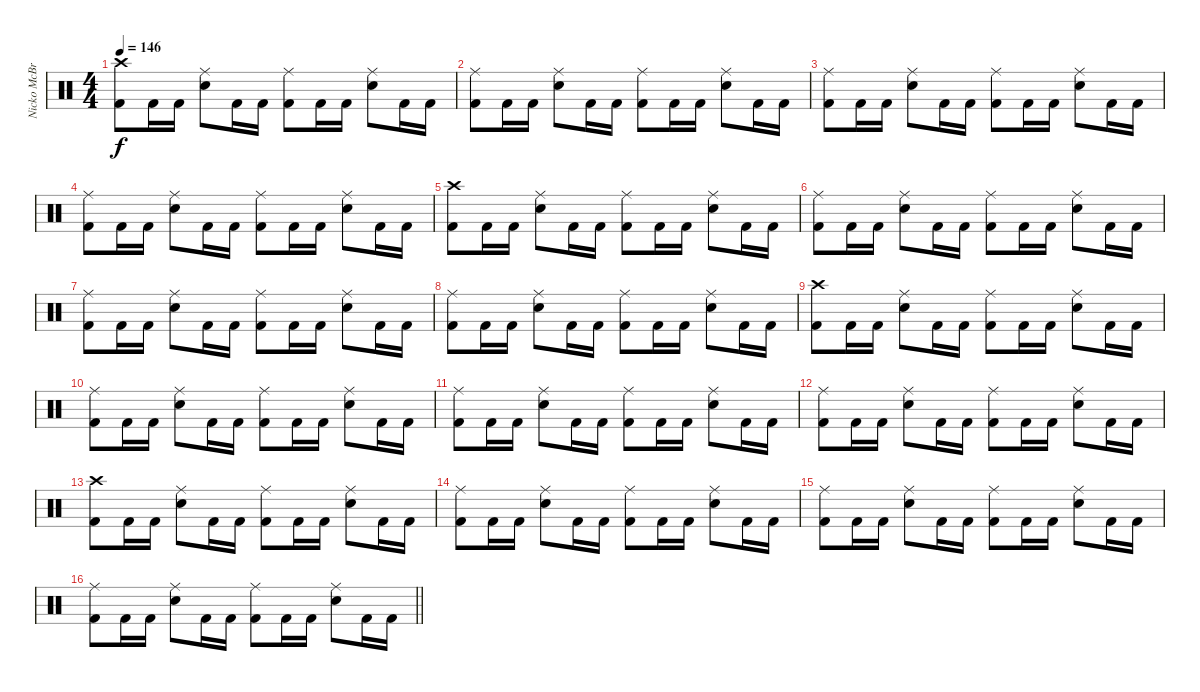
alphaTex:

\track ("Nicko McBrain" "Nicko McBr") {instrument percussion}
\staff {score}
\articulation defaults
\ts (4 4)
\tempo 146
\clef neutral
\ks c
("Crash high (hit)" "Kick (hit) 2").8{dy f} "Kick (hit) 2".16 "Kick (hit) 2".16 ("Ride (middle)" "Snare (hit) 2").8 "Kick (hit) 2".16 "Kick (hit) 2".16 ("Ride (middle)" "Kick (hit) 2").8 "Kick (hit) 2".16 "Kick (hit) 2".16 ("Ride (middle)" "Snare (hit) 2").8 "Kick (hit) 2".16 "Kick (hit) 2".16 |
("Ride (middle)" "Kick (hit) 2").8 "Kick (hit) 2".16 "Kick (hit) 2".16 ("Ride (middle)" "Snare (hit) 2").8 "Kick (hit) 2".16 "Kick (hit) 2".16 ("Ride (middle)" "Kick (hit) 2").8 "Kick (hit) 2".16 "Kick (hit) 2".16 ("Ride (middle)" "Snare (hit) 2").8 "Kick (hit) 2".16 "Kick (hit) 2".16 |
("Ride (middle)" "Kick (hit) 2").8 "Kick (hit) 2".16 "Kick (hit) 2".16 ("Ride (middle)" "Snare (hit) 2").8 "Kick (hit) 2".16 "Kick (hit) 2".16 ("Ride (middle)" "Kick (hit) 2").8 "Kick (hit) 2".16 "Kick (hit) 2".16 ("Ride (middle)" "Snare (hit) 2").8 "Kick (hit) 2".16 "Kick (hit) 2".16 |
("Ride (middle)" "Kick (hit) 2").8 "Kick (hit) 2".16 "Kick (hit) 2".16 ("Ride (middle)" "Snare (hit) 2").8 "Kick (hit) 2".16 "Kick (hit) 2".16 ("Ride (middle)" "Kick (hit) 2").8 "Kick (hit) 2".16 "Kick (hit) 2".16 ("Ride (middle)" "Snare (hit) 2").8 "Kick (hit) 2".16 "Kick (hit) 2".16 |
("Crash high (hit)" "Kick (hit) 2").8 "Kick (hit) 2".16 "Kick (hit) 2".16 ("Ride (middle)" "Snare (hit) 2").8 "Kick (hit) 2".16 "Kick (hit) 2".16 ("Ride (middle)" "Kick (hit) 2").8 "Kick (hit) 2".16 "Kick (hit) 2".16 ("Ride (middle)" "Snare (hit) 2").8 "Kick (hit) 2".16 "Kick (hit) 2".16 |
("Ride (middle)" "Kick (hit) 2").8 "Kick (hit) 2".16 "Kick (hit) 2".16 ("Ride (middle)" "Snare (hit) 2").8 "Kick (hit) 2".16 "Kick (hit) 2".16 ("Ride (middle)" "Kick (hit) 2").8 "Kick (hit) 2".16 "Kick (hit) 2".16 ("Ride (middle)" "Snare (hit) 2").8 "Kick (hit) 2".16 "Kick (hit) 2".16 |
("Ride (middle)" "Kick (hit) 2").8 "Kick (hit) 2".16 "Kick (hit) 2".16 ("Ride (middle)" "Snare (hit) 2").8 "Kick (hit) 2".16 "Kick (hit) 2".16 ("Ride (middle)" "Kick (hit) 2").8 "Kick (hit) 2".16 "Kick (hit) 2".16 ("Ride (middle)" "Snare (hit) 2").8 "Kick (hit) 2".16 "Kick (hit) 2".16 |
("Ride (middle)" "Kick (hit) 2").8 "Kick (hit) 2".16 "Kick (hit) 2".16 ("Ride (middle)" "Snare (hit) 2").8 "Kick (hit) 2".16 "Kick (hit) 2".16 ("Ride (middle)" "Kick (hit) 2").8 "Kick (hit) 2".16 "Kick (hit) 2".16 ("Ride (middle)" "Snare (hit) 2").8 "Kick (hit) 2".16 "Kick (hit) 2".16 |
("Crash high (hit)" "Kick (hit) 2").8 "Kick (hit) 2".16 "Kick (hit) 2".16 ("Ride (middle)" "Snare (hit) 2").8 "Kick (hit) 2".16 "Kick (hit) 2".16 ("Ride (middle)" "Kick (hit) 2").8 "Kick (hit) 2".16 "Kick (hit) 2".16 ("Ride (middle)" "Snare (hit) 2").8 "Kick (hit) 2".16 "Kick (hit) 2".16 |
("Ride (middle)" "Kick (hit) 2").8 "Kick (hit) 2".16 "Kick (hit) 2".16 ("Ride (middle)" "Snare (hit) 2").8 "Kick (hit) 2".16 "Kick (hit) 2".16 ("Ride (middle)" "Kick (hit) 2").8 "Kick (hit) 2".16 "Kick (hit) 2".16 ("Ride (middle)" "Snare (hit) 2").8 "Kick (hit) 2".16 "Kick (hit) 2".16 |
("Ride (middle)" "Kick (hit) 2").8 "Kick (hit) 2".16 "Kick (hit) 2".16 ("Ride (middle)" "Snare (hit) 2").8 "Kick (hit) 2".16 "Kick (hit) 2".16 ("Ride (middle)" "Kick (hit) 2").8 "Kick (hit) 2".16 "Kick (hit) 2".16 ("Ride (middle)" "Snare (hit) 2").8 "Kick (hit) 2".16 "Kick (hit) 2".16 |
("Ride (middle)" "Kick (hit) 2").8 "Kick (hit) 2".16 "Kick (hit) 2".16 ("Ride (middle)" "Snare (hit) 2").8 "Kick (hit) 2".16 "Kick (hit) 2".16 ("Ride (middle)" "Kick (hit) 2").8 "Kick (hit) 2".16 "Kick (hit) 2".16 ("Ride (middle)" "Snare (hit) 2").8 "Kick (hit) 2".16 "Kick (hit) 2".16 |
("Crash high (hit)" "Kick (hit) 2").8 "Kick (hit) 2".16 "Kick (hit) 2".16 ("Ride (middle)" "Snare (hit) 2").8 "Kick (hit) 2".16 "Kick (hit) 2".16 ("Ride (middle)" "Kick (hit) 2").8 "Kick (hit) 2".16 "Kick (hit) 2".16 ("Ride (middle)" "Snare (hit) 2").8 "Kick (hit) 2".16 "Kick (hit) 2".16 |
("Ride (middle)" "Kick (hit) 2").8 "Kick (hit) 2".16 "Kick (hit) 2".16 ("Ride (middle)" "Snare (hit) 2").8 "Kick (hit) 2".16 "Kick (hit) 2".16 ("Ride (middle)" "Kick (hit) 2").8 "Kick (hit) 2".16 "Kick (hit) 2".16 ("Ride (middle)" "Snare (hit) 2").8 "Kick (hit) 2".16 "Kick (hit) 2".16 |
("Ride (middle)" "Kick (hit) 2").8 "Kick (hit) 2".16 "Kick (hit) 2".16 ("Ride (middle)" "Snare (hit) 2").8 "Kick (hit) 2".16 "Kick (hit) 2".16 ("Ride (middle)" "Kick (hit) 2").8 "Kick (hit) 2".16 "Kick (hit) 2".16 ("Ride (middle)" "Snare (hit) 2").8 "Kick (hit) 2".16 "Kick (hit) 2".16 |
\barLineRight lightlight
("Ride (middle)" "Kick (hit) 2").8 "Kick (hit) 2".16 "Kick (hit) 2".16 ("Ride (middle)" "Snare (hit) 2").8 "Kick (hit) 2".16 "Kick (hit) 2".16 ("Ride (middle)" "Kick (hit) 2").8 "Kick (hit) 2".16 "Kick (hit) 2".16 ("Ride (middle)" "Snare (hit) 2").8 "Kick (hit) 2".16 "Kick (hit) 2".16
